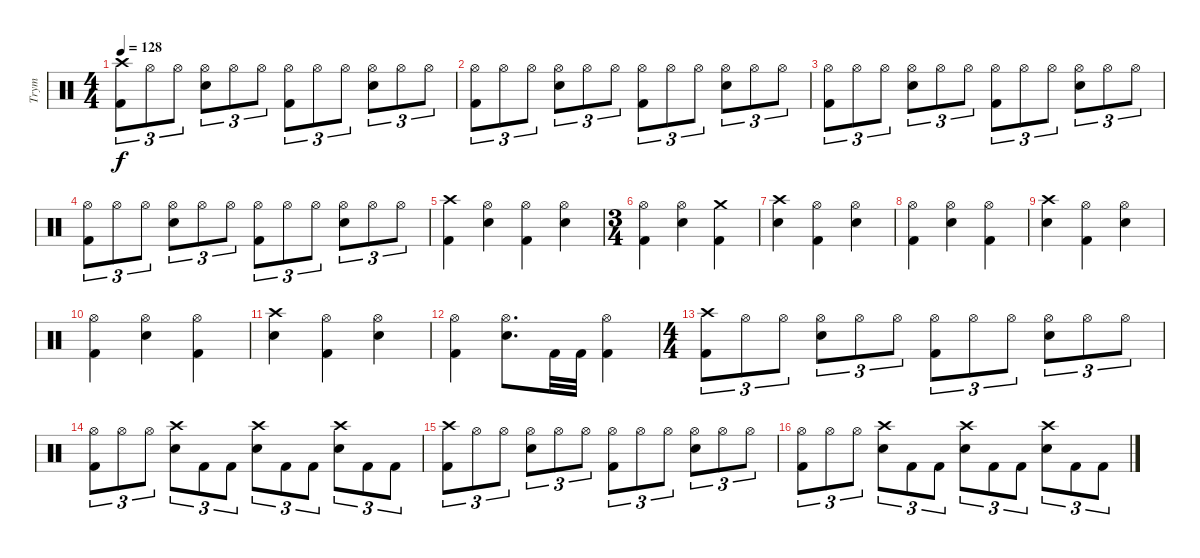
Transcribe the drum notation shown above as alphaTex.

\track ("Trym" "Trym") {instrument percussion}
\staff {score}
\articulation defaults
\ts (4 4)
\tempo 128
\clef neutral
\ks c
("Crash high (hit)" "Kick (hit) 2").8{tu (3 2) dy f} "Hi-Hat (open)".8{tu (3 2)} "Hi-Hat (open)".8{tu (3 2)} ("Hi-Hat (open)" "Electric Snare (hit)").8{tu (3 2)} "Hi-Hat (open)".8{tu (3 2)} "Hi-Hat (open)".8{tu (3 2)} ("Hi-Hat (open)" "Kick (hit) 2").8{tu (3 2)} "Hi-Hat (open)".8{tu (3 2)} "Hi-Hat (open)".8{tu (3 2)} ("Hi-Hat (open)" "Electric Snare (hit)").8{tu (3 2)} "Hi-Hat (open)".8{tu (3 2)} "Hi-Hat (open)".8{tu (3 2)} |
("Hi-Hat (open)" "Kick (hit) 2").8{tu (3 2)} "Hi-Hat (open)".8{tu (3 2)} "Hi-Hat (open)".8{tu (3 2)} ("Hi-Hat (open)" "Electric Snare (hit)").8{tu (3 2)} "Hi-Hat (open)".8{tu (3 2)} "Hi-Hat (open)".8{tu (3 2)} ("Hi-Hat (open)" "Kick (hit) 2").8{tu (3 2)} "Hi-Hat (open)".8{tu (3 2)} "Hi-Hat (open)".8{tu (3 2)} ("Hi-Hat (open)" "Electric Snare (hit)").8{tu (3 2)} "Hi-Hat (open)".8{tu (3 2)} "Hi-Hat (open)".8{tu (3 2)} |
("Hi-Hat (open)" "Kick (hit) 2").8{tu (3 2)} "Hi-Hat (open)".8{tu (3 2)} "Hi-Hat (open)".8{tu (3 2)} ("Hi-Hat (open)" "Electric Snare (hit)").8{tu (3 2)} "Hi-Hat (open)".8{tu (3 2)} "Hi-Hat (open)".8{tu (3 2)} ("Hi-Hat (open)" "Kick (hit) 2").8{tu (3 2)} "Hi-Hat (open)".8{tu (3 2)} "Hi-Hat (open)".8{tu (3 2)} ("Hi-Hat (open)" "Electric Snare (hit)").8{tu (3 2)} "Hi-Hat (open)".8{tu (3 2)} "Hi-Hat (open)".8{tu (3 2)} |
("Hi-Hat (open)" "Kick (hit) 2").8{tu (3 2)} "Hi-Hat (open)".8{tu (3 2)} "Hi-Hat (open)".8{tu (3 2)} ("Hi-Hat (open)" "Electric Snare (hit)").8{tu (3 2)} "Hi-Hat (open)".8{tu (3 2)} "Hi-Hat (open)".8{tu (3 2)} ("Hi-Hat (open)" "Kick (hit) 2").8{tu (3 2)} "Hi-Hat (open)".8{tu (3 2)} "Hi-Hat (open)".8{tu (3 2)} ("Hi-Hat (open)" "Electric Snare (hit)").8{tu (3 2)} "Hi-Hat (open)".8{tu (3 2)} "Hi-Hat (open)".8{tu (3 2)} |
("Crash high (hit)" "Kick (hit) 2").4 ("Hi-Hat (open)" "Electric Snare (hit)").4 ("Hi-Hat (open)" "Kick (hit) 2").4 ("Hi-Hat (open)" "Electric Snare (hit)").4 |
\ts (3 4)
("Hi-Hat (open)" "Kick (hit) 2").4 ("Hi-Hat (open)" "Electric Snare (hit)").4 ("Crash medium (hit)" "Kick (hit) 2").4 |
("Crash high (hit)" "Electric Snare (hit)").4 ("Hi-Hat (open)" "Kick (hit) 2").4 ("Hi-Hat (open)" "Electric Snare (hit)").4 |
("Hi-Hat (open)" "Kick (hit) 2").4 ("Hi-Hat (open)" "Electric Snare (hit)").4 ("Hi-Hat (open)" "Kick (hit) 2").4 |
("Crash high (hit)" "Electric Snare (hit)").4 ("Hi-Hat (open)" "Kick (hit) 2").4 ("Hi-Hat (open)" "Electric Snare (hit)").4 |
("Hi-Hat (open)" "Kick (hit) 2").4 ("Hi-Hat (open)" "Electric Snare (hit)").4 ("Hi-Hat (open)" "Kick (hit) 2").4 |
("Crash high (hit)" "Electric Snare (hit)").4 ("Hi-Hat (open)" "Kick (hit) 2").4 ("Hi-Hat (open)" "Electric Snare (hit)").4 |
("Hi-Hat (open)" "Kick (hit) 2").4 ("Hi-Hat (open)" "Electric Snare (hit)").8{d} "Kick (hit) 2".32 "Kick (hit) 2".32 ("Hi-Hat (open)" "Kick (hit) 2").4 |
\ts (4 4)
("Crash high (hit)" "Kick (hit) 2").8{tu (3 2)} "Hi-Hat (open)".8{tu (3 2)} "Hi-Hat (open)".8{tu (3 2)} ("Hi-Hat (open)" "Electric Snare (hit)").8{tu (3 2)} "Hi-Hat (open)".8{tu (3 2)} "Hi-Hat (open)".8{tu (3 2)} ("Hi-Hat (open)" "Kick (hit) 2").8{tu (3 2)} "Hi-Hat (open)".8{tu (3 2)} "Hi-Hat (open)".8{tu (3 2)} ("Hi-Hat (open)" "Electric Snare (hit)").8{tu (3 2)} "Hi-Hat (open)".8{tu (3 2)} "Hi-Hat (open)".8{tu (3 2)} |
("Hi-Hat (open)" "Kick (hit) 2").8{tu (3 2)} "Hi-Hat (open)".8{tu (3 2)} "Hi-Hat (open)".8{tu (3 2)} ("Crash high (hit)" "Electric Snare (hit)").8{tu (3 2)} "Kick (hit) 2".8{tu (3 2)} "Kick (hit) 2".8{tu (3 2)} ("Crash high (hit)" "Electric Snare (hit)").8{tu (3 2)} "Kick (hit) 2".8{tu (3 2)} "Kick (hit) 2".8{tu (3 2)} ("Crash high (hit)" "Electric Snare (hit)").8{tu (3 2)} "Kick (hit) 2".8{tu (3 2)} "Kick (hit) 2".8{tu (3 2)} |
("Crash high (hit)" "Kick (hit) 2").8{tu (3 2)} "Hi-Hat (open)".8{tu (3 2)} "Hi-Hat (open)".8{tu (3 2)} ("Hi-Hat (open)" "Electric Snare (hit)").8{tu (3 2)} "Hi-Hat (open)".8{tu (3 2)} "Hi-Hat (open)".8{tu (3 2)} ("Hi-Hat (open)" "Kick (hit) 2").8{tu (3 2)} "Hi-Hat (open)".8{tu (3 2)} "Hi-Hat (open)".8{tu (3 2)} ("Hi-Hat (open)" "Electric Snare (hit)").8{tu (3 2)} "Hi-Hat (open)".8{tu (3 2)} "Hi-Hat (open)".8{tu (3 2)} |
("Hi-Hat (open)" "Kick (hit) 2").8{tu (3 2)} "Hi-Hat (open)".8{tu (3 2)} "Hi-Hat (open)".8{tu (3 2)} ("Crash high (hit)" "Electric Snare (hit)").8{tu (3 2)} "Kick (hit) 2".8{tu (3 2)} "Kick (hit) 2".8{tu (3 2)} ("Crash high (hit)" "Electric Snare (hit)").8{tu (3 2)} "Kick (hit) 2".8{tu (3 2)} "Kick (hit) 2".8{tu (3 2)} ("Crash high (hit)" "Electric Snare (hit)").8{tu (3 2)} "Kick (hit) 2".8{tu (3 2)} "Kick (hit) 2".8{tu (3 2)}
